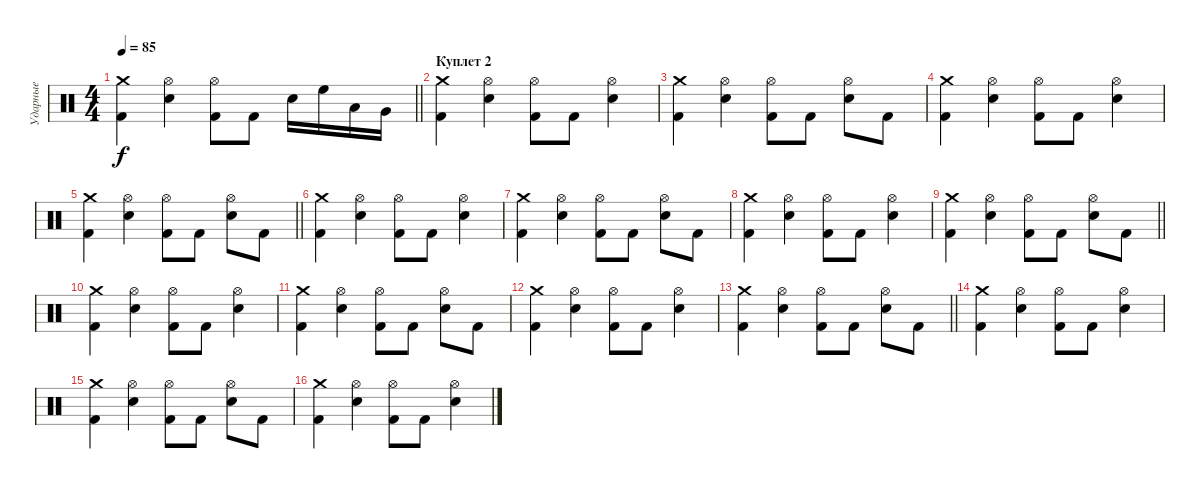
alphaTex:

\track ("Ударные" "Ударные") {instrument percussion}
\staff {score}
\articulation defaults
\ts (4 4)
\tempo 85
\clef neutral
\barLineRight lightlight
\ks c
("Crash medium (hit)" "Kick (hit) 2").4{dy f} ("Hi-Hat (open)" "Snare (hit) 2").4 ("Hi-Hat (open)" "Kick (hit) 2").8 "Kick (hit) 2".8 "Snare (hit) 2".16 "High Floor Tom (hit)".16 "Low Tom (hit)".16 "Very Low Tom (hit)".16 |
\section ("" "Куплет 2")
("Crash medium (hit)" "Kick (hit) 2").4 ("Hi-Hat (open)" "Snare (hit) 2").4 ("Hi-Hat (open)" "Kick (hit) 2").8 "Kick (hit) 2".8 ("Hi-Hat (open)" "Snare (hit) 2").4 |
("Crash medium (hit)" "Kick (hit) 2").4 ("Hi-Hat (open)" "Snare (hit) 2").4 ("Hi-Hat (open)" "Kick (hit) 2").8 "Kick (hit) 2".8 ("Hi-Hat (open)" "Snare (hit) 2").8 "Kick (hit) 2".8 |
("Crash medium (hit)" "Kick (hit) 2").4 ("Hi-Hat (open)" "Snare (hit) 2").4 ("Hi-Hat (open)" "Kick (hit) 2").8 "Kick (hit) 2".8 ("Hi-Hat (open)" "Snare (hit) 2").4 |
\barLineRight lightlight
("Crash medium (hit)" "Kick (hit) 2").4 ("Hi-Hat (open)" "Snare (hit) 2").4 ("Hi-Hat (open)" "Kick (hit) 2").8 "Kick (hit) 2".8 ("Hi-Hat (open)" "Snare (hit) 2").8 "Kick (hit) 2".8 |
("Crash medium (hit)" "Kick (hit) 2").4 ("Hi-Hat (open)" "Snare (hit) 2").4 ("Hi-Hat (open)" "Kick (hit) 2").8 "Kick (hit) 2".8 ("Hi-Hat (open)" "Snare (hit) 2").4 |
("Crash medium (hit)" "Kick (hit) 2").4 ("Hi-Hat (open)" "Snare (hit) 2").4 ("Hi-Hat (open)" "Kick (hit) 2").8 "Kick (hit) 2".8 ("Hi-Hat (open)" "Snare (hit) 2").8 "Kick (hit) 2".8 |
("Crash medium (hit)" "Kick (hit) 2").4 ("Hi-Hat (open)" "Snare (hit) 2").4 ("Hi-Hat (open)" "Kick (hit) 2").8 "Kick (hit) 2".8 ("Hi-Hat (open)" "Snare (hit) 2").4 |
\barLineRight lightlight
("Crash medium (hit)" "Kick (hit) 2").4 ("Hi-Hat (open)" "Snare (hit) 2").4 ("Hi-Hat (open)" "Kick (hit) 2").8 "Kick (hit) 2".8 ("Hi-Hat (open)" "Snare (hit) 2").8 "Kick (hit) 2".8 |
("Crash medium (hit)" "Kick (hit) 2").4 ("Hi-Hat (open)" "Snare (hit) 2").4 ("Hi-Hat (open)" "Kick (hit) 2").8 "Kick (hit) 2".8 ("Hi-Hat (open)" "Snare (hit) 2").4 |
("Crash medium (hit)" "Kick (hit) 2").4 ("Hi-Hat (open)" "Snare (hit) 2").4 ("Hi-Hat (open)" "Kick (hit) 2").8 "Kick (hit) 2".8 ("Hi-Hat (open)" "Snare (hit) 2").8 "Kick (hit) 2".8 |
("Crash medium (hit)" "Kick (hit) 2").4 ("Hi-Hat (open)" "Snare (hit) 2").4 ("Hi-Hat (open)" "Kick (hit) 2").8 "Kick (hit) 2".8 ("Hi-Hat (open)" "Snare (hit) 2").4 |
\barLineRight lightlight
("Crash medium (hit)" "Kick (hit) 2").4 ("Hi-Hat (open)" "Snare (hit) 2").4 ("Hi-Hat (open)" "Kick (hit) 2").8 "Kick (hit) 2".8 ("Hi-Hat (open)" "Snare (hit) 2").8 "Kick (hit) 2".8 |
("Crash medium (hit)" "Kick (hit) 2").4 ("Hi-Hat (open)" "Snare (hit) 2").4 ("Hi-Hat (open)" "Kick (hit) 2").8 "Kick (hit) 2".8 ("Hi-Hat (open)" "Snare (hit) 2").4 |
("Crash medium (hit)" "Kick (hit) 2").4 ("Hi-Hat (open)" "Snare (hit) 2").4 ("Hi-Hat (open)" "Kick (hit) 2").8 "Kick (hit) 2".8 ("Hi-Hat (open)" "Snare (hit) 2").8 "Kick (hit) 2".8 |
("Crash medium (hit)" "Kick (hit) 2").4 ("Hi-Hat (open)" "Snare (hit) 2").4 ("Hi-Hat (open)" "Kick (hit) 2").8 "Kick (hit) 2".8 ("Hi-Hat (open)" "Snare (hit) 2").4
